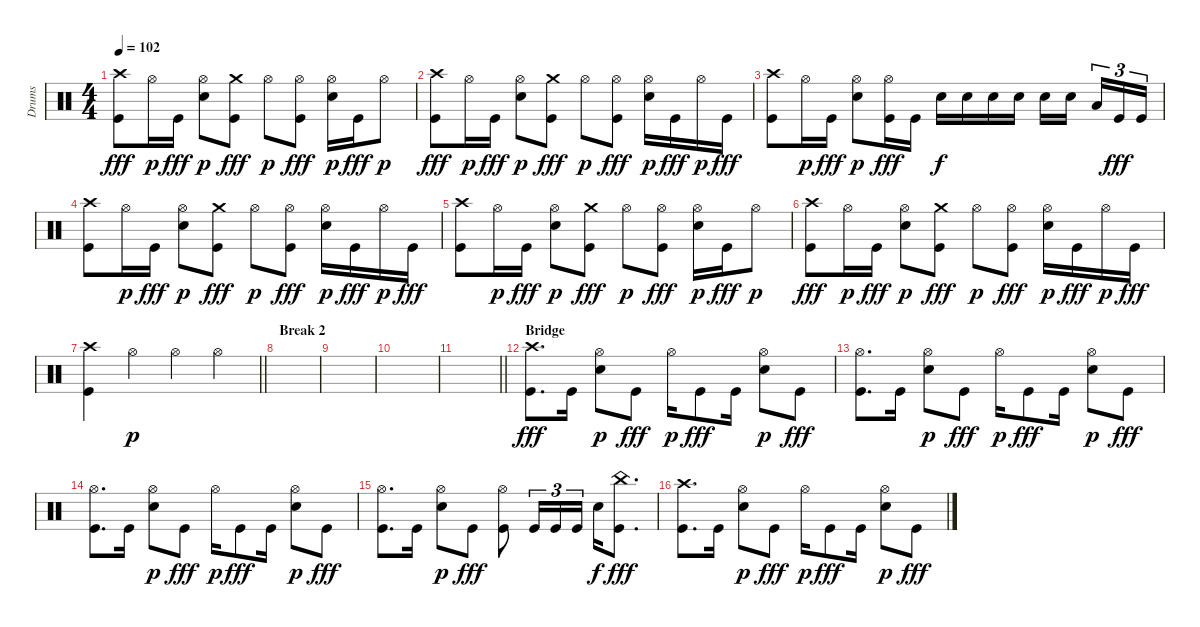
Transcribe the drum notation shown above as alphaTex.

\track ("Drums" "Drums") {instrument percussion}
\staff
\articulation defaults
\ts (4 4)
\tempo 102
\clef neutral
\ks c
("Crash high (hit)" "Kick (hit)").8{dy fff} "Hi-Hat (open)".16{dy p} "Kick (hit)".16{dy fff} ("Hi-Hat (open)" "Electric Snare (hit)").8{dy p} ("Crash medium (hit)" "Kick (hit)").8{dy fff} "Hi-Hat (open)".8{dy p} ("Hi-Hat (open)" "Kick (hit)").8{dy fff} ("Hi-Hat (open)" "Electric Snare (hit)").16{dy p} "Kick (hit)".16{dy fff} "Hi-Hat (open)".8{dy p} |
("Crash high (hit)" "Kick (hit)").8{dy fff} "Hi-Hat (open)".16{dy p} "Kick (hit)".16{dy fff} ("Hi-Hat (open)" "Electric Snare (hit)").8{dy p} ("Crash medium (hit)" "Kick (hit)").8{dy fff} "Hi-Hat (open)".8{dy p} ("Hi-Hat (open)" "Kick (hit)").8{dy fff} ("Hi-Hat (open)" "Electric Snare (hit)").16{dy p} "Kick (hit)".16{dy fff} "Hi-Hat (open)".16{dy p} "Kick (hit)".16{dy fff} |
("Crash high (hit)" "Kick (hit)").8 "Hi-Hat (open)".16{dy p} "Kick (hit)".16{dy fff} ("Hi-Hat (open)" "Electric Snare (hit)").8{dy p} ("Hi-Hat (open)" "Kick (hit)").16{dy fff} "Kick (hit)".16 "Electric Snare (hit)".16{dy f} "Electric Snare (hit)".16 "Electric Snare (hit)".16 "Electric Snare (hit)".16 "Electric Snare (hit)".16 "Electric Snare (hit)".16{beam splitsecondary} "Low Floor Tom (hit)".16{tu (3 2)} "Kick (hit)".16{tu (3 2) dy fff} "Kick (hit)".16{tu (3 2)} |
("Crash high (hit)" "Kick (hit)").8 "Hi-Hat (open)".16{dy p} "Kick (hit)".16{dy fff} ("Hi-Hat (open)" "Electric Snare (hit)").8{dy p} ("Crash medium (hit)" "Kick (hit)").8{dy fff} "Hi-Hat (open)".8{dy p} ("Hi-Hat (open)" "Kick (hit)").8{dy fff} ("Hi-Hat (open)" "Electric Snare (hit)").16{dy p} "Kick (hit)".16{dy fff} "Hi-Hat (open)".16{dy p} "Kick (hit)".16{dy fff} |
("Crash high (hit)" "Kick (hit)").8 "Hi-Hat (open)".16{dy p} "Kick (hit)".16{dy fff} ("Hi-Hat (open)" "Electric Snare (hit)").8{dy p} ("Crash medium (hit)" "Kick (hit)").8{dy fff} "Hi-Hat (open)".8{dy p} ("Hi-Hat (open)" "Kick (hit)").8{dy fff} ("Hi-Hat (open)" "Electric Snare (hit)").16{dy p} "Kick (hit)".16{dy fff} "Hi-Hat (open)".8{dy p} |
("Crash high (hit)" "Kick (hit)").8{dy fff} "Hi-Hat (open)".16{dy p} "Kick (hit)".16{dy fff} ("Hi-Hat (open)" "Electric Snare (hit)").8{dy p} ("Crash medium (hit)" "Kick (hit)").8{dy fff} "Hi-Hat (open)".8{dy p} ("Hi-Hat (open)" "Kick (hit)").8{dy fff} ("Hi-Hat (open)" "Electric Snare (hit)").16{dy p} "Kick (hit)".16{dy fff} "Hi-Hat (open)".16{dy p} "Kick (hit)".16{dy fff} |
\barLineRight lightlight
("Crash high (hit)" "Kick (hit)").4 "Hi-Hat (open)".4{dy p} "Hi-Hat (open)".4 "Hi-Hat (open)".4 |
\section ("" "Break 2")
|
|
|
\barLineRight lightlight
|
\section ("" "Bridge")
("Crash high (hit)" "Kick (hit)").8{d dy fff} "Kick (hit)".16 ("Hi-Hat (open)" "Electric Snare (hit)").8{dy p} "Kick (hit)".8{dy fff} "Hi-Hat (open)".16{dy p} "Kick (hit)".8{dy fff} "Kick (hit)".16 ("Hi-Hat (open)" "Electric Snare (hit)").8{dy p} "Kick (hit)".8{dy fff} |
("Hi-Hat (open)" "Kick (hit)").8{d} "Kick (hit)".16 ("Hi-Hat (open)" "Electric Snare (hit)").8{dy p} "Kick (hit)".8{dy fff} "Hi-Hat (open)".16{dy p} "Kick (hit)".8{dy fff} "Kick (hit)".16 ("Hi-Hat (open)" "Electric Snare (hit)").8{dy p} "Kick (hit)".8{dy fff} |
("Hi-Hat (open)" "Kick (hit)").8{d} "Kick (hit)".16 ("Hi-Hat (open)" "Electric Snare (hit)").8{dy p} "Kick (hit)".8{dy fff} "Hi-Hat (open)".16{dy p} "Kick (hit)".8{dy fff} "Kick (hit)".16 ("Hi-Hat (open)" "Electric Snare (hit)").8{dy p} "Kick (hit)".8{dy fff} |
("Hi-Hat (open)" "Kick (hit)").8{d} "Kick (hit)".16 ("Hi-Hat (open)" "Electric Snare (hit)").8{dy p} "Kick (hit)".8{dy fff} ("Hi-Hat (open)" "Kick (hit)").8 "Kick (hit)".16{tu (3 2)} "Kick (hit)".16{tu (3 2)} "Kick (hit)".16{tu (3 2)} "Electric Snare (hit)".16{dy f} ("China (hit)" "Kick (hit)").8{d dy fff} |
("Crash high (hit)" "Kick (hit)").8{d} "Kick (hit)".16 ("Hi-Hat (open)" "Electric Snare (hit)").8{dy p} "Kick (hit)".8{dy fff} "Hi-Hat (open)".16{dy p} "Kick (hit)".8{dy fff} "Kick (hit)".16 ("Hi-Hat (open)" "Electric Snare (hit)").8{dy p} "Kick (hit)".8{dy fff}
